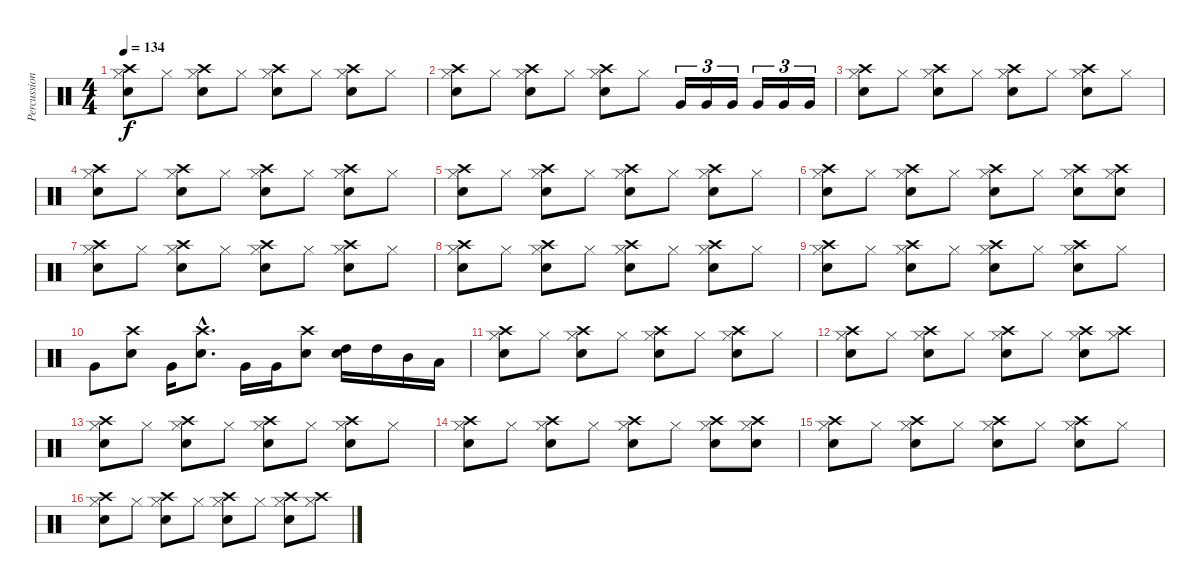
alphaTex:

\track ("Percussions" "Percussion") {instrument percussion}
\staff {score}
\articulation defaults
\ts (4 4)
\tempo 134
\clef neutral
\ks c
("Snare (hit) 2" "Hi-Hat (closed)" "Crash high (hit)").8{dy f} "Hi-Hat (closed)".8 ("Snare (hit) 2" "Hi-Hat (closed)" "Crash high (hit)").8 "Hi-Hat (closed)".8 ("Snare (hit) 2" "Hi-Hat (closed)" "Crash high (hit)").8 "Hi-Hat (closed)".8 ("Snare (hit) 2" "Hi-Hat (closed)" "Crash high (hit)").8 "Hi-Hat (closed)".8 |
("Snare (hit) 2" "Hi-Hat (closed)" "Crash high (hit)").8 "Hi-Hat (closed)".8 ("Snare (hit) 2" "Hi-Hat (closed)" "Crash high (hit)").8 "Hi-Hat (closed)".8 ("Snare (hit) 2" "Hi-Hat (closed)" "Crash high (hit)").8 "Hi-Hat (closed)".8 "Very Low Tom (hit)".16{tu (3 2)} "Very Low Tom (hit)".16{tu (3 2)} "Very Low Tom (hit)".16{tu (3 2)} "Very Low Tom (hit)".16{tu (3 2)} "Very Low Tom (hit)".16{tu (3 2)} "Very Low Tom (hit)".16{tu (3 2)} |
("Snare (hit) 2" "Hi-Hat (closed)" "Crash high (hit)").8 "Hi-Hat (closed)".8 ("Snare (hit) 2" "Hi-Hat (closed)" "Crash high (hit)").8 "Hi-Hat (closed)".8 ("Snare (hit) 2" "Hi-Hat (closed)" "Crash high (hit)").8 "Hi-Hat (closed)".8 ("Snare (hit) 2" "Hi-Hat (closed)" "Crash high (hit)").8 "Hi-Hat (closed)".8 |
("Snare (hit) 2" "Hi-Hat (closed)" "Crash high (hit)").8 "Hi-Hat (closed)".8 ("Snare (hit) 2" "Hi-Hat (closed)" "Crash high (hit)").8 "Hi-Hat (closed)".8 ("Snare (hit) 2" "Hi-Hat (closed)" "Crash high (hit)").8 "Hi-Hat (closed)".8 ("Snare (hit) 2" "Hi-Hat (closed)" "Crash high (hit)").8 "Hi-Hat (closed)".8 |
("Snare (hit) 2" "Hi-Hat (closed)" "Crash high (hit)").8 "Hi-Hat (closed)".8 ("Snare (hit) 2" "Hi-Hat (closed)" "Crash high (hit)").8 "Hi-Hat (closed)".8 ("Snare (hit) 2" "Hi-Hat (closed)" "Crash high (hit)").8 "Hi-Hat (closed)".8 ("Snare (hit) 2" "Hi-Hat (closed)" "Crash high (hit)").8 "Hi-Hat (closed)".8 |
("Snare (hit) 2" "Hi-Hat (closed)" "Crash high (hit)").8 "Hi-Hat (closed)".8 ("Snare (hit) 2" "Hi-Hat (closed)" "Crash high (hit)").8 "Hi-Hat (closed)".8 ("Snare (hit) 2" "Hi-Hat (closed)" "Crash high (hit)").8 "Hi-Hat (closed)".8 ("Snare (hit) 2" "Hi-Hat (closed)" "Crash high (hit)").8 ("Snare (hit) 2" "Hi-Hat (closed)" "Crash high (hit)").8 |
("Snare (hit) 2" "Hi-Hat (closed)" "Crash high (hit)").8 "Hi-Hat (closed)".8 ("Snare (hit) 2" "Hi-Hat (closed)" "Crash high (hit)").8 "Hi-Hat (closed)".8 ("Snare (hit) 2" "Hi-Hat (closed)" "Crash high (hit)").8 "Hi-Hat (closed)".8 ("Snare (hit) 2" "Hi-Hat (closed)" "Crash high (hit)").8 "Hi-Hat (closed)".8 |
("Snare (hit) 2" "Hi-Hat (closed)" "Crash high (hit)").8 "Hi-Hat (closed)".8 ("Snare (hit) 2" "Hi-Hat (closed)" "Crash high (hit)").8 "Hi-Hat (closed)".8 ("Snare (hit) 2" "Hi-Hat (closed)" "Crash high (hit)").8 "Hi-Hat (closed)".8 ("Snare (hit) 2" "Hi-Hat (closed)" "Crash high (hit)").8 "Hi-Hat (closed)".8 |
("Snare (hit) 2" "Hi-Hat (closed)" "Crash high (hit)").8 "Hi-Hat (closed)".8 ("Snare (hit) 2" "Hi-Hat (closed)" "Crash high (hit)").8 "Hi-Hat (closed)".8 ("Snare (hit) 2" "Hi-Hat (closed)" "Crash high (hit)").8 "Hi-Hat (closed)".8 ("Snare (hit) 2" "Hi-Hat (closed)" "Crash high (hit)").8 "Hi-Hat (closed)".8 |
"Very Low Tom (hit)".8 ("Electric Snare (hit)" "Crash high (hit)").8 "Very Low Tom (hit)".16 ("Electric Snare (hit)"{hac} "Crash high (hit)"{hac}).8{d} "Very Low Tom (hit)".16 "Very Low Tom (hit)".16 ("Electric Snare (hit)" "Crash high (hit)").8 ("Electric Snare (hit)" "High Tom (hit)").16 "High Tom (hit)".16 "Mid Tom (hit)".16 "Low Tom (hit)".16 |
("Snare (hit) 2" "Hi-Hat (closed)" "Crash high (hit)").8 "Hi-Hat (closed)".8 ("Snare (hit) 2" "Hi-Hat (closed)" "Crash high (hit)").8 "Hi-Hat (closed)".8 ("Snare (hit) 2" "Hi-Hat (closed)" "Crash high (hit)").8 "Hi-Hat (closed)".8 ("Snare (hit) 2" "Hi-Hat (closed)" "Crash high (hit)").8 "Hi-Hat (closed)".8 |
("Snare (hit) 2" "Hi-Hat (closed)" "Crash high (hit)").8 "Hi-Hat (closed)".8 ("Snare (hit) 2" "Hi-Hat (closed)" "Crash high (hit)").8 "Hi-Hat (closed)".8 ("Snare (hit) 2" "Hi-Hat (closed)" "Crash high (hit)").8 "Hi-Hat (closed)".8 ("Snare (hit) 2" "Hi-Hat (closed)" "Crash high (hit)").8 ("Hi-Hat (closed)" "Crash high (hit)").8 |
("Snare (hit) 2" "Hi-Hat (closed)" "Crash high (hit)").8 "Hi-Hat (closed)".8 ("Snare (hit) 2" "Hi-Hat (closed)" "Crash high (hit)").8 "Hi-Hat (closed)".8 ("Snare (hit) 2" "Hi-Hat (closed)" "Crash high (hit)").8 "Hi-Hat (closed)".8 ("Snare (hit) 2" "Hi-Hat (closed)" "Crash high (hit)").8 "Hi-Hat (closed)".8 |
("Snare (hit) 2" "Hi-Hat (closed)" "Crash high (hit)").8 "Hi-Hat (closed)".8 ("Snare (hit) 2" "Hi-Hat (closed)" "Crash high (hit)").8 "Hi-Hat (closed)".8 ("Snare (hit) 2" "Hi-Hat (closed)" "Crash high (hit)").8 "Hi-Hat (closed)".8 ("Snare (hit) 2" "Hi-Hat (closed)" "Crash high (hit)").8 ("Snare (hit) 2" "Hi-Hat (closed)" "Crash high (hit)").8 |
("Snare (hit) 2" "Hi-Hat (closed)" "Crash high (hit)").8 "Hi-Hat (closed)".8 ("Snare (hit) 2" "Hi-Hat (closed)" "Crash high (hit)").8 "Hi-Hat (closed)".8 ("Snare (hit) 2" "Hi-Hat (closed)" "Crash high (hit)").8 "Hi-Hat (closed)".8 ("Snare (hit) 2" "Hi-Hat (closed)" "Crash high (hit)").8 "Hi-Hat (closed)".8 |
("Snare (hit) 2" "Hi-Hat (closed)" "Crash high (hit)").8{volume 2} "Hi-Hat (closed)".8 ("Snare (hit) 2" "Hi-Hat (closed)" "Crash high (hit)").8 "Hi-Hat (closed)".8 ("Snare (hit) 2" "Hi-Hat (closed)" "Crash high (hit)").8 "Hi-Hat (closed)".8 ("Snare (hit) 2" "Hi-Hat (closed)" "Crash high (hit)").8 ("Hi-Hat (closed)" "Crash high (hit)").8
